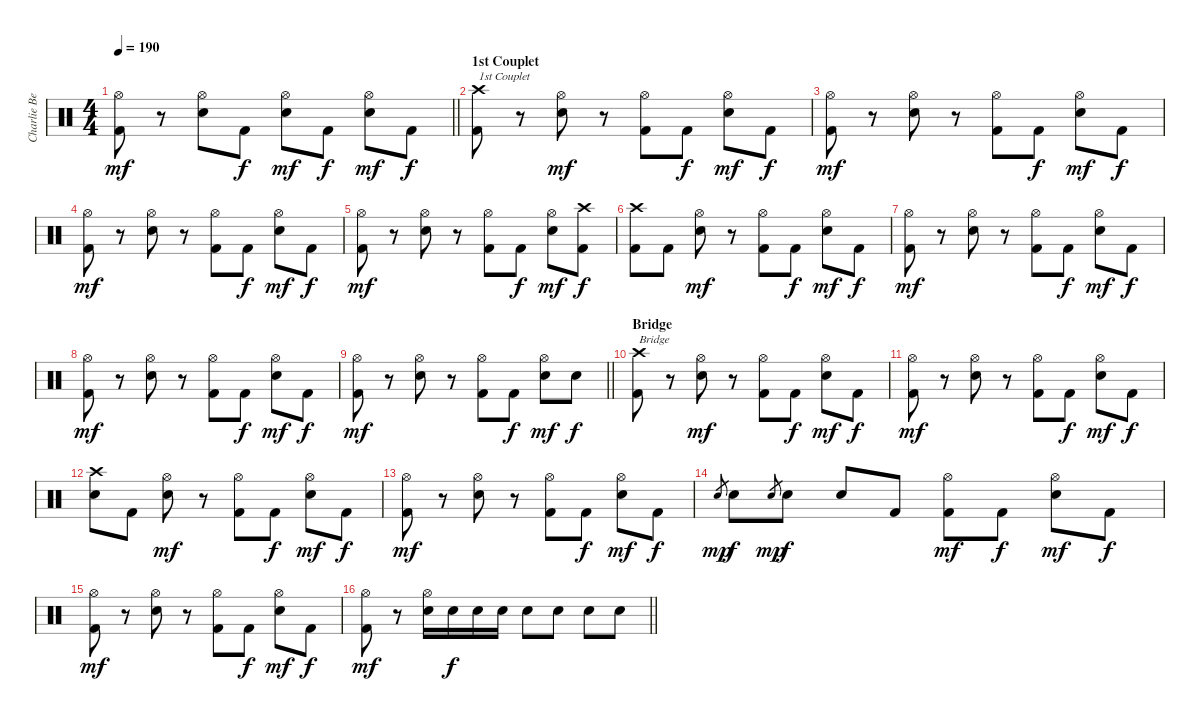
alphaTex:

\track ("Charlie Benante" "Charlie Be") {instrument percussion}
\staff {score}
\articulation defaults
\ts (4 4)
\tempo 190
\clef neutral
\barLineRight lightlight
\ks c
("Hi-Hat (open)" "Kick (hit) 2").8{dy mf} r.8 ("Hi-Hat (open)" "Electric Snare (hit)").8 "Kick (hit) 2".8{dy f} ("Hi-Hat (open)" "Electric Snare (hit)").8{dy mf} "Kick (hit) 2".8{dy f} ("Hi-Hat (open)" "Electric Snare (hit)").8{dy mf} "Kick (hit) 2".8{dy f} |
\section ("" "1st Couplet")
("Crash high (hit)" "Kick (hit) 2").8{txt "1st Couplet"} r.8 ("Hi-Hat (open)" "Electric Snare (hit)").8{dy mf} r.8 ("Hi-Hat (open)" "Kick (hit) 2").8 "Kick (hit) 2".8{dy f} ("Hi-Hat (open)" "Electric Snare (hit)").8{dy mf} "Kick (hit) 2".8{dy f} |
("Hi-Hat (open)" "Kick (hit) 2").8{dy mf} r.8 ("Hi-Hat (open)" "Electric Snare (hit)").8 r.8 ("Hi-Hat (open)" "Kick (hit) 2").8 "Kick (hit) 2".8{dy f} ("Hi-Hat (open)" "Electric Snare (hit)").8{dy mf} "Kick (hit) 2".8{dy f} |
("Hi-Hat (open)" "Kick (hit) 2").8{dy mf} r.8 ("Hi-Hat (open)" "Electric Snare (hit)").8 r.8 ("Hi-Hat (open)" "Kick (hit) 2").8 "Kick (hit) 2".8{dy f} ("Hi-Hat (open)" "Electric Snare (hit)").8{dy mf} "Kick (hit) 2".8{dy f} |
("Hi-Hat (open)" "Kick (hit) 2").8{dy mf} r.8 ("Hi-Hat (open)" "Electric Snare (hit)").8 r.8 ("Hi-Hat (open)" "Kick (hit) 2").8 "Kick (hit) 2".8{dy f} ("Hi-Hat (open)" "Electric Snare (hit)").8{dy mf} ("Crash high (hit)" "Kick (hit) 2").8{dy f} |
("Crash high (hit)" "Kick (hit) 2").8 "Kick (hit) 2".8 ("Hi-Hat (open)" "Electric Snare (hit)").8{dy mf} r.8 ("Hi-Hat (open)" "Kick (hit) 2").8 "Kick (hit) 2".8{dy f} ("Hi-Hat (open)" "Electric Snare (hit)").8{dy mf} "Kick (hit) 2".8{dy f} |
("Hi-Hat (open)" "Kick (hit) 2").8{dy mf} r.8 ("Hi-Hat (open)" "Electric Snare (hit)").8 r.8 ("Hi-Hat (open)" "Kick (hit) 2").8 "Kick (hit) 2".8{dy f} ("Hi-Hat (open)" "Electric Snare (hit)").8{dy mf} "Kick (hit) 2".8{dy f} |
("Hi-Hat (open)" "Kick (hit) 2").8{dy mf} r.8 ("Hi-Hat (open)" "Electric Snare (hit)").8 r.8 ("Hi-Hat (open)" "Kick (hit) 2").8 "Kick (hit) 2".8{dy f} ("Hi-Hat (open)" "Electric Snare (hit)").8{dy mf} "Kick (hit) 2".8{dy f} |
\barLineRight lightlight
("Hi-Hat (open)" "Kick (hit) 2").8{dy mf} r.8 ("Hi-Hat (open)" "Electric Snare (hit)").8 r.8 ("Hi-Hat (open)" "Kick (hit) 2").8 "Kick (hit) 2".8{dy f} ("Hi-Hat (open)" "Electric Snare (hit)").8{dy mf} "Snare (hit) 2".8{dy f} |
\section ("" "Bridge")
("Crash high (hit)" "Kick (hit) 2").8{txt "Bridge"} r.8 ("Hi-Hat (open)" "Electric Snare (hit)").8{dy mf} r.8 ("Hi-Hat (open)" "Kick (hit) 2").8 "Kick (hit) 2".8{dy f} ("Hi-Hat (open)" "Electric Snare (hit)").8{dy mf} "Kick (hit) 2".8{dy f} |
("Hi-Hat (open)" "Kick (hit) 2").8{dy mf} r.8 ("Hi-Hat (open)" "Electric Snare (hit)").8 r.8 ("Hi-Hat (open)" "Kick (hit) 2").8 "Kick (hit) 2".8{dy f} ("Hi-Hat (open)" "Electric Snare (hit)").8{dy mf} "Kick (hit) 2".8{dy f} |
("Crash high (hit)" "Electric Snare (hit)").8 "Kick (hit) 2".8 ("Hi-Hat (open)" "Electric Snare (hit)").8{dy mf} r.8 ("Hi-Hat (open)" "Kick (hit) 2").8 "Kick (hit) 2".8{dy f} ("Hi-Hat (open)" "Electric Snare (hit)").8{dy mf} "Kick (hit) 2".8{dy f} |
("Hi-Hat (open)" "Kick (hit) 2").8{dy mf} r.8 ("Hi-Hat (open)" "Electric Snare (hit)").8 r.8 ("Hi-Hat (open)" "Kick (hit) 2").8 "Kick (hit) 2".8{dy f} ("Hi-Hat (open)" "Electric Snare (hit)").8{dy mf} "Kick (hit) 2".8{dy f} |
"Snare (hit) 2".8{gr dy mp} "Electric Snare (hit)".8{dy f} "Snare (hit) 2".8{gr dy mp} "Electric Snare (hit)".8{dy f} "Electric Snare (hit)".8 "Kick (hit) 2".8 ("Hi-Hat (open)" "Kick (hit) 2").8{dy mf} "Kick (hit) 2".8{dy f} ("Hi-Hat (open)" "Electric Snare (hit)").8{dy mf} "Kick (hit) 2".8{dy f} |
("Hi-Hat (open)" "Kick (hit) 2").8{dy mf} r.8 ("Hi-Hat (open)" "Electric Snare (hit)").8 r.8 ("Hi-Hat (open)" "Kick (hit) 2").8 "Kick (hit) 2".8{dy f} ("Hi-Hat (open)" "Electric Snare (hit)").8{dy mf} "Kick (hit) 2".8{dy f} |
\barLineRight lightlight
("Hi-Hat (open)" "Kick (hit) 2").8{dy mf} r.8 ("Hi-Hat (open)" "Electric Snare (hit)").16 "Electric Snare (hit)".16{dy f} "Electric Snare (hit)".16 "Electric Snare (hit)".16 "Electric Snare (hit)".8 "Electric Snare (hit)".8 "Electric Snare (hit)".8 "Electric Snare (hit)".8
